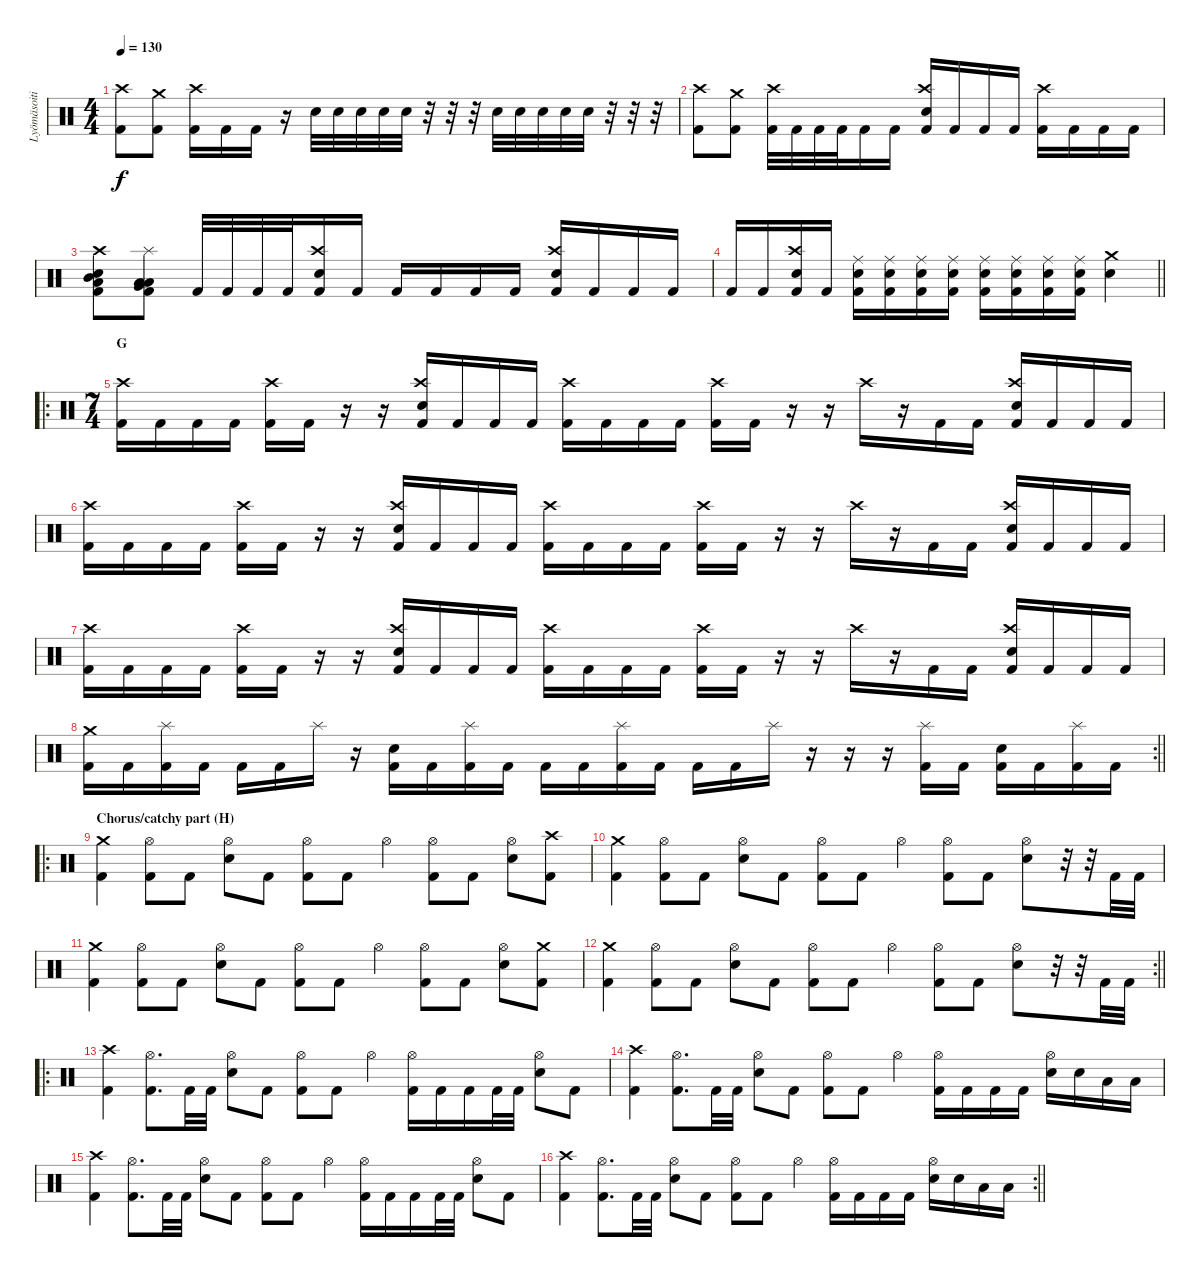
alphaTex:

\track ("Lyömäsoitin" "Lyömäsoiti") {instrument percussion}
\staff {score}
\articulation defaults
\ts (4 4)
\tempo 130
\clef neutral
\ks c
("Kick (hit) 2" "Crash high (hit)").8{dy f} ("Kick (hit) 2" "Crash medium (hit)").8 ("Kick (hit) 2" "Crash high (hit)").16 "Kick (hit) 2".16 "Kick (hit) 2".16 r.16 "Electric Snare (hit)".32 "Electric Snare (hit)".32 "Electric Snare (hit)".32 "Electric Snare (hit)".32 "Electric Snare (hit)".32 r.32 r.32 r.32 "Electric Snare (hit)".32 "Electric Snare (hit)".32 "Electric Snare (hit)".32 "Electric Snare (hit)".32 "Electric Snare (hit)".32 r.32 r.32 r.32 |
("Kick (hit) 2" "Crash high (hit)").8 ("Kick (hit) 2" "Crash medium (hit)").8 ("Kick (hit) 2" "Crash high (hit)").32 "Kick (hit) 2".32 "Kick (hit) 2".32 "Kick (hit) 2".32 "Kick (hit) 2".16 "Kick (hit) 2".16 ("Electric Snare (hit)" "Kick (hit) 2" "Crash high (hit)").16 "Kick (hit) 2".16 "Kick (hit) 2".16 "Kick (hit) 2".16 ("Kick (hit) 2" "Crash high (hit)").16 "Kick (hit) 2".16 "Kick (hit) 2".16 "Kick (hit) 2".16 |
("Electric Snare (hit)" "Mid Tom (hit)" "Low Tom (hit)" "Kick (hit) 2" "Crash high (hit)").8 ("Low Tom (hit)" "Very Low Tom (hit)" "Low Floor Tom (hit)" "Kick (hit) 2" "Splash (hit)").8 "Kick (hit) 2".32 "Kick (hit) 2".32 "Kick (hit) 2".32 "Kick (hit) 2".32 ("Kick (hit) 2" "Electric Snare (hit)" "Crash high (hit)").16 "Kick (hit) 2".16 "Kick (hit) 2".16 "Kick (hit) 2".16 "Kick (hit) 2".16 "Kick (hit) 2".16 ("Kick (hit) 2" "Crash high (hit)" "Electric Snare (hit)").16 "Kick (hit) 2".16 "Kick (hit) 2".16 "Kick (hit) 2".16 |
\barLineRight lightlight "Kick (hit) 2".16 "Kick (hit) 2".16
("Kick (hit) 2" "Electric Snare (hit)" "Crash high (hit)").16 "Kick (hit) 2".16 ("Ride (middle)" "Kick (hit) 2" "Electric Snare (hit)").16 ("Ride (middle)" "Kick (hit) 2" "Electric Snare (hit)").16 ("Ride (middle)" "Kick (hit) 2" "Electric Snare (hit)").16 ("Ride (middle)" "Kick (hit) 2" "Electric Snare (hit)").16 ("Ride (middle)" "Kick (hit) 2" "Electric Snare (hit)").16 ("Ride (middle)" "Kick (hit) 2" "Electric Snare (hit)").16 ("Ride (middle)" "Kick (hit) 2" "Electric Snare (hit)").16 ("Ride (middle)" "Kick (hit) 2" "Electric Snare (hit)").16 ("Electric Snare (hit)" "Crash medium (hit)").4 |
\ro
\ts (7 4)
\section ("" "G")
("Kick (hit) 2" "Crash high (hit)").16 "Kick (hit) 2".16 "Kick (hit) 2".16 "Kick (hit) 2".16 ("Kick (hit) 2" "Crash high (hit)").16 "Kick (hit) 2".16 r.16 r.16 ("Electric Snare (hit)" "Crash high (hit)" "Kick (hit) 2").16 "Kick (hit) 2".16 "Kick (hit) 2".16 "Kick (hit) 2".16 ("Kick (hit) 2" "Crash high (hit)").16 "Kick (hit) 2".16 "Kick (hit) 2".16 "Kick (hit) 2".16 ("Kick (hit) 2" "Crash high (hit)").16 "Kick (hit) 2".16 r.16 r.16 "Crash high (hit)".16 r.16 "Kick (hit) 2".16 "Kick (hit) 2".16 ("Kick (hit) 2" "Electric Snare (hit)" "Crash high (hit)").16 "Kick (hit) 2".16 "Kick (hit) 2".16 "Kick (hit) 2".16 |
("Kick (hit) 2" "Crash high (hit)").16 "Kick (hit) 2".16 "Kick (hit) 2".16 "Kick (hit) 2".16 ("Kick (hit) 2" "Crash high (hit)").16 "Kick (hit) 2".16 r.16 r.16 ("Electric Snare (hit)" "Crash high (hit)" "Kick (hit) 2").16 "Kick (hit) 2".16 "Kick (hit) 2".16 "Kick (hit) 2".16 ("Kick (hit) 2" "Crash high (hit)").16 "Kick (hit) 2".16 "Kick (hit) 2".16 "Kick (hit) 2".16 ("Kick (hit) 2" "Crash high (hit)").16 "Kick (hit) 2".16 r.16 r.16 "Crash high (hit)".16 r.16 "Kick (hit) 2".16 "Kick (hit) 2".16 ("Kick (hit) 2" "Electric Snare (hit)" "Crash high (hit)").16 "Kick (hit) 2".16 "Kick (hit) 2".16 "Kick (hit) 2".16 |
("Kick (hit) 2" "Crash high (hit)").16 "Kick (hit) 2".16 "Kick (hit) 2".16 "Kick (hit) 2".16 ("Kick (hit) 2" "Crash high (hit)").16 "Kick (hit) 2".16 r.16 r.16 ("Electric Snare (hit)" "Crash high (hit)" "Kick (hit) 2").16 "Kick (hit) 2".16 "Kick (hit) 2".16 "Kick (hit) 2".16 ("Kick (hit) 2" "Crash high (hit)").16 "Kick (hit) 2".16 "Kick (hit) 2".16 "Kick (hit) 2".16 ("Kick (hit) 2" "Crash high (hit)").16 "Kick (hit) 2".16 r.16 r.16 "Crash high (hit)".16 r.16 "Kick (hit) 2".16 "Kick (hit) 2".16 ("Kick (hit) 2" "Electric Snare (hit)" "Crash high (hit)").16 "Kick (hit) 2".16 "Kick (hit) 2".16 "Kick (hit) 2".16 |
\rc 2
\barLineRight lightlight
("Kick (hit) 2" "Crash medium (hit)").16 "Kick (hit) 2".16 ("Kick (hit) 2" "Splash (hit)").16 "Kick (hit) 2".16 "Kick (hit) 2".16 "Kick (hit) 2".16 "Splash (hit)".16 r.16 ("Electric Snare (hit)" "Kick (hit) 2").16 "Kick (hit) 2".16 ("Kick (hit) 2" "Splash (hit)").16 "Kick (hit) 2".16 "Kick (hit) 2".16 "Kick (hit) 2".16 ("Kick (hit) 2" "Splash (hit)").16 "Kick (hit) 2".16 "Kick (hit) 2".16 "Kick (hit) 2".16 "Splash (hit)".16 r.16 r.16 r.16 ("Kick (hit) 2" "Splash (hit)").16 "Kick (hit) 2".16 ("Kick (hit) 2" "Electric Snare (hit)").16 "Kick (hit) 2".16 ("Kick (hit) 2" "Splash (hit)").16 "Kick (hit) 2".16 |
\ro
\section ("" "Chorus/catchy part (H)")
("Kick (hit) 2" "Crash medium (hit)").4 ("Kick (hit) 2" "Hi-Hat (open)").8 "Kick (hit) 2".8 ("Electric Snare (hit)" "Hi-Hat (open)").8 "Kick (hit) 2".8 ("Kick (hit) 2" "Hi-Hat (open)").8 "Kick (hit) 2".8 "Hi-Hat (open)".4 ("Kick (hit) 2" "Hi-Hat (open)").8 "Kick (hit) 2".8 ("Electric Snare (hit)" "Hi-Hat (open)").8 ("Kick (hit) 2" "Crash high (hit)").8 |
("Kick (hit) 2" "Crash medium (hit)").4 ("Kick (hit) 2" "Hi-Hat (open)").8 "Kick (hit) 2".8 ("Electric Snare (hit)" "Hi-Hat (open)").8 "Kick (hit) 2".8 ("Kick (hit) 2" "Hi-Hat (open)").8 "Kick (hit) 2".8 "Hi-Hat (open)".4 ("Kick (hit) 2" "Hi-Hat (open)").8 "Kick (hit) 2".8 ("Hi-Hat (open)" "Electric Snare (hit)").8 r.32 r.32 "Kick (hit) 2".32 "Kick (hit) 2".32 |
("Kick (hit) 2" "Crash medium (hit)").4 ("Kick (hit) 2" "Hi-Hat (open)").8 "Kick (hit) 2".8 ("Electric Snare (hit)" "Hi-Hat (open)").8 "Kick (hit) 2".8 ("Kick (hit) 2" "Hi-Hat (open)").8 "Kick (hit) 2".8 "Hi-Hat (open)".4 ("Kick (hit) 2" "Hi-Hat (open)").8 "Kick (hit) 2".8 ("Electric Snare (hit)" "Hi-Hat (open)").8 ("Kick (hit) 2" "Crash medium (hit)").8 |
\rc 2
\barLineRight lightlight
("Kick (hit) 2" "Crash medium (hit)").4 ("Kick (hit) 2" "Hi-Hat (open)").8 "Kick (hit) 2".8 ("Electric Snare (hit)" "Hi-Hat (open)").8 "Kick (hit) 2".8 ("Kick (hit) 2" "Hi-Hat (open)").8 "Kick (hit) 2".8 "Hi-Hat (open)".4 ("Kick (hit) 2" "Hi-Hat (open)").8 "Kick (hit) 2".8 ("Hi-Hat (open)" "Electric Snare (hit)").8 r.32 r.32 "Kick (hit) 2".32 "Kick (hit) 2".32 |
\ro
("Kick (hit) 2" "Crash high (hit)").4 ("Kick (hit) 2" "Hi-Hat (open)").8{d} "Kick (hit) 2".32 "Kick (hit) 2".32 ("Electric Snare (hit)" "Hi-Hat (open)").8 "Kick (hit) 2".8 ("Kick (hit) 2" "Hi-Hat (open)").8 "Kick (hit) 2".8 "Hi-Hat (open)".4 ("Kick (hit) 2" "Hi-Hat (open)").16 "Kick (hit) 2".16 "Kick (hit) 2".16 "Kick (hit) 2".32 "Kick (hit) 2".32 ("Electric Snare (hit)" "Hi-Hat (open)").8 "Kick (hit) 2".8 |
("Kick (hit) 2" "Crash high (hit)").4 ("Kick (hit) 2" "Hi-Hat (open)").8{d} "Kick (hit) 2".32 "Kick (hit) 2".32 ("Electric Snare (hit)" "Hi-Hat (open)").8 "Kick (hit) 2".8 ("Kick (hit) 2" "Hi-Hat (open)").8 "Kick (hit) 2".8 "Hi-Hat (open)".4 ("Kick (hit) 2" "Hi-Hat (open)").16 "Kick (hit) 2".16 "Kick (hit) 2".16 "Kick (hit) 2".16 ("Hi-Hat (open)" "Electric Snare (hit)").16 "Electric Snare (hit)".16 "Low Tom (hit)".16 "Low Tom (hit)".16 |
("Kick (hit) 2" "Crash high (hit)").4 ("Kick (hit) 2" "Hi-Hat (open)").8{d} "Kick (hit) 2".32 "Kick (hit) 2".32 ("Electric Snare (hit)" "Hi-Hat (open)").8 "Kick (hit) 2".8 ("Kick (hit) 2" "Hi-Hat (open)").8 "Kick (hit) 2".8 "Hi-Hat (open)".4 ("Kick (hit) 2" "Hi-Hat (open)").16 "Kick (hit) 2".16 "Kick (hit) 2".16 "Kick (hit) 2".32 "Kick (hit) 2".32 ("Electric Snare (hit)" "Hi-Hat (open)").8 "Kick (hit) 2".8 |
\rc 2
\barLineRight lightlight
("Kick (hit) 2" "Crash high (hit)").4 ("Kick (hit) 2" "Hi-Hat (open)").8{d} "Kick (hit) 2".32 "Kick (hit) 2".32 ("Electric Snare (hit)" "Hi-Hat (open)").8 "Kick (hit) 2".8 ("Kick (hit) 2" "Hi-Hat (open)").8 "Kick (hit) 2".8 "Hi-Hat (open)".4 ("Kick (hit) 2" "Hi-Hat (open)").16 "Kick (hit) 2".16 "Kick (hit) 2".16 "Kick (hit) 2".16 ("Hi-Hat (open)" "Electric Snare (hit)").16 "Electric Snare (hit)".16 "Low Tom (hit)".16 "Low Tom (hit)".16
